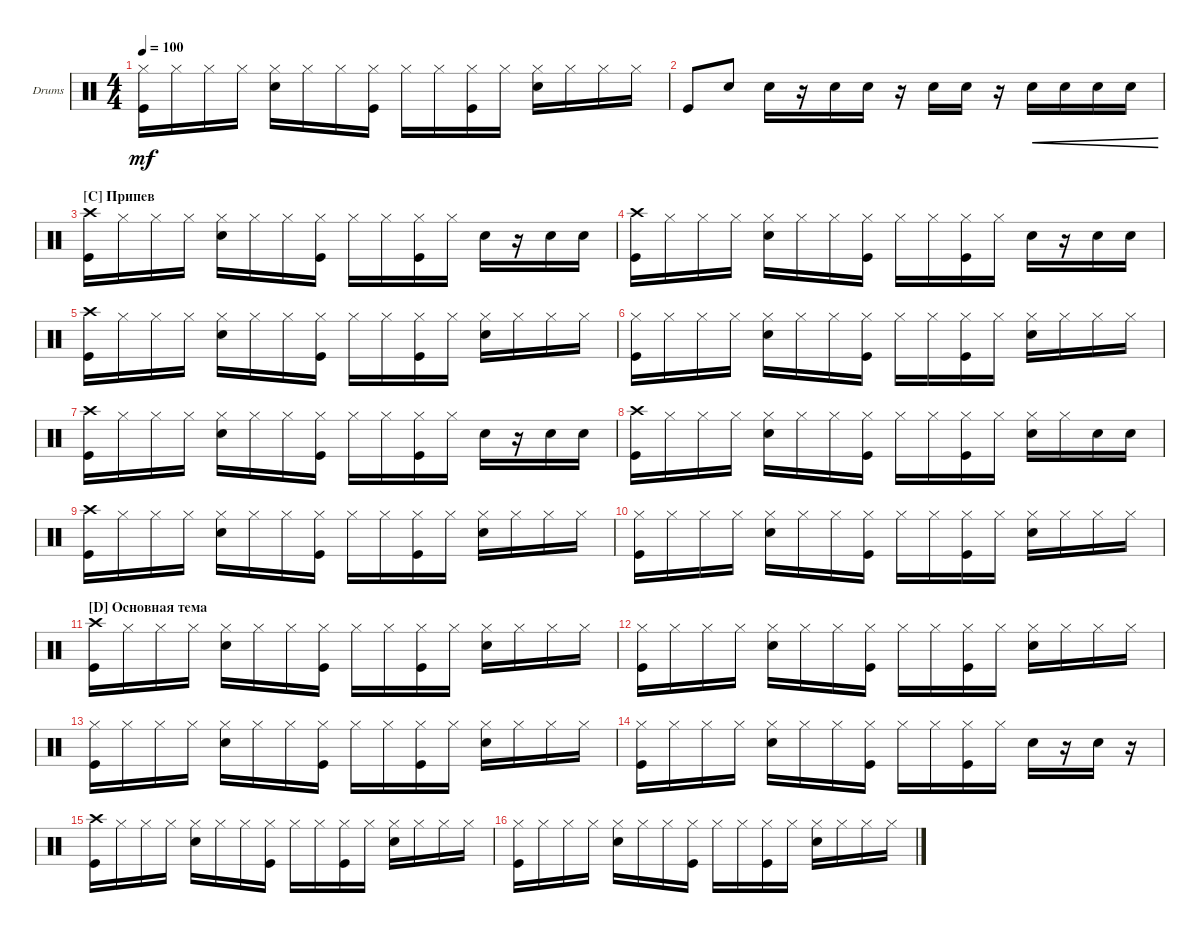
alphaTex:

\bracketExtendMode groupsimilarinstruments
\firstSystemTrackNameOrientation horizontal
\otherSystemsTrackNameOrientation horizontal
\track ("Drumkit" "Drums") {instrument percussion}
\staff {score}
\articulation defaults
\ts (4 4)
\tempo 100
\clef neutral
\ks c
("Kick (hit)" "Hi-Hat (closed)").16{dy mf} "Hi-Hat (closed)".16 "Hi-Hat (closed)".16 "Hi-Hat (closed)".16 ("Hi-Hat (closed)" "Snare (hit) 2").16 "Hi-Hat (closed)".16 "Hi-Hat (closed)".16 ("Hi-Hat (closed)" "Kick (hit)").16 "Hi-Hat (closed)".16 "Hi-Hat (closed)".16 ("Hi-Hat (closed)" "Kick (hit)").16 "Hi-Hat (closed)".16 ("Hi-Hat (closed)" "Snare (hit) 2").16 "Hi-Hat (closed)".16 "Hi-Hat (closed)".16 "Hi-Hat (closed)".16 |
"Kick (hit)".8 "Snare (hit) 2".8 "Snare (hit) 2".16 r.16 "Snare (hit) 2".16 "Snare (hit) 2".16 r.16 "Snare (hit) 2".16 "Snare (hit) 2".16 r.16 "Snare (hit) 2".16{cre} "Snare (hit) 2".16{cre} "Snare (hit) 2".16{cre} "Snare (hit) 2".16{cre} |
\section ("C" "Припев")
("Kick (hit)" "Crash high (hit)").16 "Hi-Hat (closed)".16 "Hi-Hat (closed)".16 "Hi-Hat (closed)".16 ("Hi-Hat (closed)" "Snare (hit) 2").16 "Hi-Hat (closed)".16 "Hi-Hat (closed)".16 ("Hi-Hat (closed)" "Kick (hit)").16 "Hi-Hat (closed)".16 "Hi-Hat (closed)".16 ("Hi-Hat (closed)" "Kick (hit)").16 "Hi-Hat (closed)".16 "Snare (hit) 2".16 r.16 "Snare (hit) 2".16 "Snare (hit) 2".16 |
("Kick (hit)" "Crash high (hit)").16 "Hi-Hat (closed)".16 "Hi-Hat (closed)".16 "Hi-Hat (closed)".16 ("Hi-Hat (closed)" "Snare (hit) 2").16 "Hi-Hat (closed)".16 "Hi-Hat (closed)".16 ("Hi-Hat (closed)" "Kick (hit)").16 "Hi-Hat (closed)".16 "Hi-Hat (closed)".16 ("Hi-Hat (closed)" "Kick (hit)").16 "Hi-Hat (closed)".16 "Snare (hit) 2".16 r.16 "Snare (hit) 2".16 "Snare (hit) 2".16 |
("Kick (hit)" "Crash high (hit)").16 "Hi-Hat (closed)".16 "Hi-Hat (closed)".16 "Hi-Hat (closed)".16 ("Hi-Hat (closed)" "Snare (hit) 2").16 "Hi-Hat (closed)".16 "Hi-Hat (closed)".16 ("Hi-Hat (closed)" "Kick (hit)").16 "Hi-Hat (closed)".16 "Hi-Hat (closed)".16 ("Hi-Hat (closed)" "Kick (hit)").16 "Hi-Hat (closed)".16 ("Hi-Hat (closed)" "Snare (hit) 2").16 "Hi-Hat (closed)".16 "Hi-Hat (closed)".16 "Hi-Hat (closed)".16 |
("Kick (hit)" "Hi-Hat (closed)").16 "Hi-Hat (closed)".16 "Hi-Hat (closed)".16 "Hi-Hat (closed)".16 ("Hi-Hat (closed)" "Snare (hit) 2").16 "Hi-Hat (closed)".16 "Hi-Hat (closed)".16 ("Hi-Hat (closed)" "Kick (hit)").16 "Hi-Hat (closed)".16 "Hi-Hat (closed)".16 ("Hi-Hat (closed)" "Kick (hit)").16 "Hi-Hat (closed)".16 ("Hi-Hat (closed)" "Snare (hit) 2").16 "Hi-Hat (closed)".16 "Hi-Hat (closed)".16 "Hi-Hat (closed)".16 |
("Kick (hit)" "Crash high (hit)").16 "Hi-Hat (closed)".16 "Hi-Hat (closed)".16 "Hi-Hat (closed)".16 ("Hi-Hat (closed)" "Snare (hit) 2").16 "Hi-Hat (closed)".16 "Hi-Hat (closed)".16 ("Hi-Hat (closed)" "Kick (hit)").16 "Hi-Hat (closed)".16 "Hi-Hat (closed)".16 ("Hi-Hat (closed)" "Kick (hit)").16 "Hi-Hat (closed)".16 "Snare (hit) 2".16 r.16 "Snare (hit) 2".16 "Snare (hit) 2".16 |
("Kick (hit)" "Crash high (hit)").16 "Hi-Hat (closed)".16 "Hi-Hat (closed)".16 "Hi-Hat (closed)".16 ("Hi-Hat (closed)" "Snare (hit) 2").16 "Hi-Hat (closed)".16 "Hi-Hat (closed)".16 ("Hi-Hat (closed)" "Kick (hit)").16 "Hi-Hat (closed)".16 "Hi-Hat (closed)".16 ("Hi-Hat (closed)" "Kick (hit)").16 "Hi-Hat (closed)".16 ("Hi-Hat (closed)" "Snare (hit) 2").16 "Hi-Hat (closed)".16 "Snare (hit) 2".16 "Snare (hit) 2".16 |
("Kick (hit)" "Crash high (hit)").16 "Hi-Hat (closed)".16 "Hi-Hat (closed)".16 "Hi-Hat (closed)".16 ("Hi-Hat (closed)" "Snare (hit) 2").16 "Hi-Hat (closed)".16 "Hi-Hat (closed)".16 ("Hi-Hat (closed)" "Kick (hit)").16 "Hi-Hat (closed)".16 "Hi-Hat (closed)".16 ("Hi-Hat (closed)" "Kick (hit)").16 "Hi-Hat (closed)".16 ("Hi-Hat (closed)" "Snare (hit) 2").16 "Hi-Hat (closed)".16 "Hi-Hat (closed)".16 "Hi-Hat (closed)".16 |
("Kick (hit)" "Hi-Hat (closed)").16 "Hi-Hat (closed)".16 "Hi-Hat (closed)".16 "Hi-Hat (closed)".16 ("Hi-Hat (closed)" "Snare (hit) 2").16 "Hi-Hat (closed)".16 "Hi-Hat (closed)".16 ("Hi-Hat (closed)" "Kick (hit)").16 "Hi-Hat (closed)".16 "Hi-Hat (closed)".16 ("Hi-Hat (closed)" "Kick (hit)").16 "Hi-Hat (closed)".16 ("Hi-Hat (closed)" "Snare (hit) 2").16 "Hi-Hat (closed)".16 "Hi-Hat (closed)".16 "Hi-Hat (closed)".16 |
\section ("D" "Основная тема")
("Kick (hit)" "Crash high (hit)").16 "Hi-Hat (closed)".16 "Hi-Hat (closed)".16 "Hi-Hat (closed)".16 ("Hi-Hat (closed)" "Snare (hit) 2").16 "Hi-Hat (closed)".16 "Hi-Hat (closed)".16 ("Hi-Hat (closed)" "Kick (hit)").16 "Hi-Hat (closed)".16 "Hi-Hat (closed)".16 ("Hi-Hat (closed)" "Kick (hit)").16 "Hi-Hat (closed)".16 ("Hi-Hat (closed)" "Snare (hit) 2").16 "Hi-Hat (closed)".16 "Hi-Hat (closed)".16 "Hi-Hat (closed)".16 |
("Kick (hit)" "Hi-Hat (closed)").16 "Hi-Hat (closed)".16 "Hi-Hat (closed)".16 "Hi-Hat (closed)".16 ("Hi-Hat (closed)" "Snare (hit) 2").16 "Hi-Hat (closed)".16 "Hi-Hat (closed)".16 ("Hi-Hat (closed)" "Kick (hit)").16 "Hi-Hat (closed)".16 "Hi-Hat (closed)".16 ("Hi-Hat (closed)" "Kick (hit)").16 "Hi-Hat (closed)".16 ("Hi-Hat (closed)" "Snare (hit) 2").16 "Hi-Hat (closed)".16 "Hi-Hat (closed)".16 "Hi-Hat (closed)".16 |
("Kick (hit)" "Hi-Hat (closed)").16 "Hi-Hat (closed)".16 "Hi-Hat (closed)".16 "Hi-Hat (closed)".16 ("Hi-Hat (closed)" "Snare (hit) 2").16 "Hi-Hat (closed)".16 "Hi-Hat (closed)".16 ("Hi-Hat (closed)" "Kick (hit)").16 "Hi-Hat (closed)".16 "Hi-Hat (closed)".16 ("Hi-Hat (closed)" "Kick (hit)").16 "Hi-Hat (closed)".16 ("Hi-Hat (closed)" "Snare (hit) 2").16 "Hi-Hat (closed)".16 "Hi-Hat (closed)".16 "Hi-Hat (closed)".16 |
("Kick (hit)" "Hi-Hat (closed)").16 "Hi-Hat (closed)".16 "Hi-Hat (closed)".16 "Hi-Hat (closed)".16 ("Hi-Hat (closed)" "Snare (hit) 2").16 "Hi-Hat (closed)".16 "Hi-Hat (closed)".16 ("Hi-Hat (closed)" "Kick (hit)").16 "Hi-Hat (closed)".16 "Hi-Hat (closed)".16 ("Hi-Hat (closed)" "Kick (hit)").16 "Hi-Hat (closed)".16 "Snare (hit) 2".16 r.16 "Snare (hit) 2".16 r.16 |
("Kick (hit)" "Crash high (hit)").16 "Hi-Hat (closed)".16 "Hi-Hat (closed)".16 "Hi-Hat (closed)".16 ("Hi-Hat (closed)" "Snare (hit) 2").16 "Hi-Hat (closed)".16 "Hi-Hat (closed)".16 ("Hi-Hat (closed)" "Kick (hit)").16 "Hi-Hat (closed)".16 "Hi-Hat (closed)".16 ("Hi-Hat (closed)" "Kick (hit)").16 "Hi-Hat (closed)".16 ("Hi-Hat (closed)" "Snare (hit) 2").16 "Hi-Hat (closed)".16 "Hi-Hat (closed)".16 "Hi-Hat (closed)".16 |
("Kick (hit)" "Hi-Hat (closed)").16 "Hi-Hat (closed)".16 "Hi-Hat (closed)".16 "Hi-Hat (closed)".16 ("Hi-Hat (closed)" "Snare (hit) 2").16 "Hi-Hat (closed)".16 "Hi-Hat (closed)".16 ("Hi-Hat (closed)" "Kick (hit)").16 "Hi-Hat (closed)".16 "Hi-Hat (closed)".16 ("Hi-Hat (closed)" "Kick (hit)").16 "Hi-Hat (closed)".16 ("Hi-Hat (closed)" "Snare (hit) 2").16 "Hi-Hat (closed)".16 "Hi-Hat (closed)".16 "Hi-Hat (closed)".16
